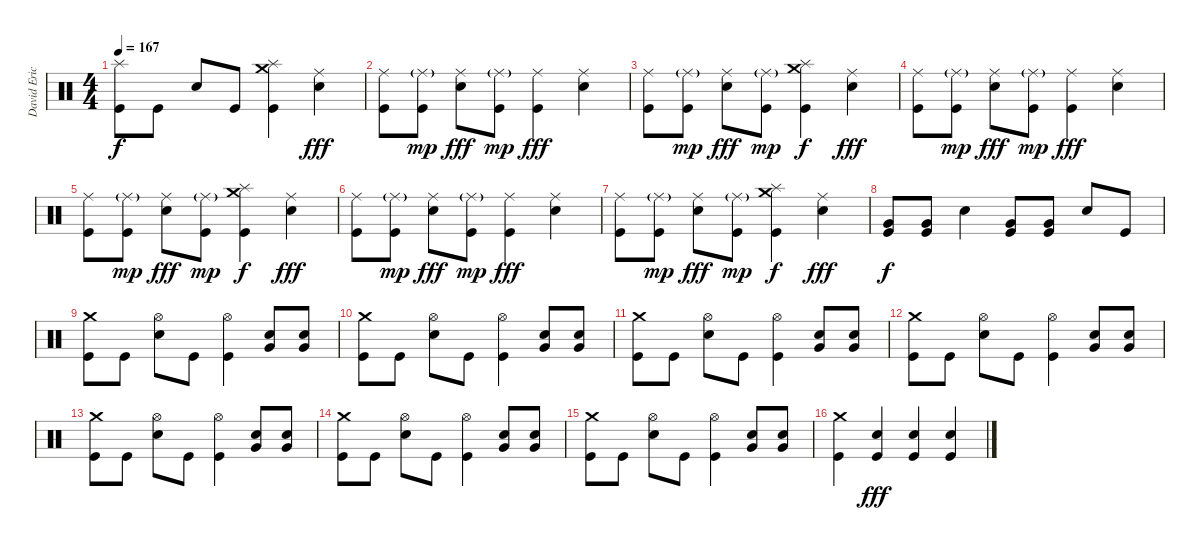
\track ("David Eric Grohl" "David Eric") {instrument percussion}
\staff {score}
\articulation defaults
\ts (4 4)
\tempo 167
\clef neutral
\ks c
("Splash (hit)" "Kick (hit)").8{dy f} "Kick (hit)".8 "Snare (hit) 2".8 "Kick (hit)".8 ("Splash (hit)" "Crash medium (hit)" "Kick (hit)").4 ("Ride (middle)" "Snare (hit) 2").4{dy fff} |
("Ride (middle)" "Kick (hit)").8 ("Ride (middle)"{g} "Kick (hit)").8{dy mp} ("Ride (middle)" "Snare (hit) 2").8{dy fff} ("Ride (middle)"{g} "Kick (hit)").8{dy mp} ("Ride (middle)" "Kick (hit)").4{dy fff} ("Ride (middle)" "Snare (hit) 2").4 |
("Ride (middle)" "Kick (hit)").8 ("Ride (middle)"{g} "Kick (hit)").8{dy mp} ("Ride (middle)" "Snare (hit) 2").8{dy fff} ("Ride (middle)"{g} "Kick (hit)").8{dy mp} ("Splash (hit)" "Crash medium (hit)" "Kick (hit)").4{dy f} ("Ride (middle)" "Snare (hit) 2").4{dy fff} |
("Ride (middle)" "Kick (hit)").8 ("Ride (middle)"{g} "Kick (hit)").8{dy mp} ("Ride (middle)" "Snare (hit) 2").8{dy fff} ("Ride (middle)"{g} "Kick (hit)").8{dy mp} ("Ride (middle)" "Kick (hit)").4{dy fff} ("Ride (middle)" "Snare (hit) 2").4 |
("Ride (middle)" "Kick (hit)").8 ("Ride (middle)"{g} "Kick (hit)").8{dy mp} ("Ride (middle)" "Snare (hit) 2").8{dy fff} ("Ride (middle)"{g} "Kick (hit)").8{dy mp} ("Splash (hit)" "Crash medium (hit)" "Kick (hit)").4{dy f} ("Ride (middle)" "Snare (hit) 2").4{dy fff} |
("Ride (middle)" "Kick (hit)").8 ("Ride (middle)"{g} "Kick (hit)").8{dy mp} ("Ride (middle)" "Snare (hit) 2").8{dy fff} ("Ride (middle)"{g} "Kick (hit)").8{dy mp} ("Ride (middle)" "Kick (hit)").4{dy fff} ("Ride (middle)" "Snare (hit) 2").4 |
("Ride (middle)" "Kick (hit)").8 ("Ride (middle)"{g} "Kick (hit)").8{dy mp} ("Ride (middle)" "Snare (hit) 2").8{dy fff} ("Ride (middle)"{g} "Kick (hit)").8{dy mp} ("Splash (hit)" "Crash medium (hit)" "Kick (hit)").4{dy f} ("Ride (middle)" "Snare (hit) 2").4{dy fff} |
("Very Low Tom (hit)" "Kick (hit)").8{dy f} ("Very Low Tom (hit)" "Kick (hit)").8 "Snare (hit) 2".4 ("Very Low Tom (hit)" "Kick (hit)").8 ("Very Low Tom (hit)" "Kick (hit)").8 "Snare (hit) 2".8 "Kick (hit)".8 |
("Crash medium (hit)" "Kick (hit)").8 "Kick (hit)".8 ("Hi-Hat (open)" "Snare (hit) 2").8 "Kick (hit)".8 ("Hi-Hat (open)" "Kick (hit)").4 ("Snare (hit) 2" "Very Low Tom (hit)").8 ("Snare (hit) 2" "Very Low Tom (hit)").8 |
("Crash medium (hit)" "Kick (hit)").8 "Kick (hit)".8 ("Hi-Hat (open)" "Snare (hit) 2").8 "Kick (hit)".8 ("Hi-Hat (open)" "Kick (hit)").4 ("Snare (hit) 2" "Very Low Tom (hit)").8 ("Snare (hit) 2" "Very Low Tom (hit)").8 |
("Crash medium (hit)" "Kick (hit)").8 "Kick (hit)".8 ("Hi-Hat (open)" "Snare (hit) 2").8 "Kick (hit)".8 ("Hi-Hat (open)" "Kick (hit)").4 ("Snare (hit) 2" "Very Low Tom (hit)").8 ("Snare (hit) 2" "Very Low Tom (hit)").8 |
("Crash medium (hit)" "Kick (hit)").8 "Kick (hit)".8 ("Hi-Hat (open)" "Snare (hit) 2").8 "Kick (hit)".8 ("Hi-Hat (open)" "Kick (hit)").4 ("Snare (hit) 2" "Very Low Tom (hit)").8 ("Snare (hit) 2" "Very Low Tom (hit)").8 |
("Crash medium (hit)" "Kick (hit)").8 "Kick (hit)".8 ("Hi-Hat (open)" "Snare (hit) 2").8 "Kick (hit)".8 ("Hi-Hat (open)" "Kick (hit)").4 ("Snare (hit) 2" "Very Low Tom (hit)").8 ("Snare (hit) 2" "Very Low Tom (hit)").8 |
("Crash medium (hit)" "Kick (hit)").8 "Kick (hit)".8 ("Hi-Hat (open)" "Snare (hit) 2").8 "Kick (hit)".8 ("Hi-Hat (open)" "Kick (hit)").4 ("Snare (hit) 2" "Very Low Tom (hit)").8 ("Snare (hit) 2" "Very Low Tom (hit)").8 |
("Crash medium (hit)" "Kick (hit)").8 "Kick (hit)".8 ("Hi-Hat (open)" "Snare (hit) 2").8 "Kick (hit)".8 ("Hi-Hat (open)" "Kick (hit)").4 ("Snare (hit) 2" "Very Low Tom (hit)").8 ("Snare (hit) 2" "Very Low Tom (hit)").8 |
("Crash medium (hit)" "Kick (hit)").4 ("Snare (hit) 2" "Kick (hit)").4{dy fff} ("Snare (hit) 2" "Kick (hit)").4 ("Snare (hit) 2" "Kick (hit)").4
